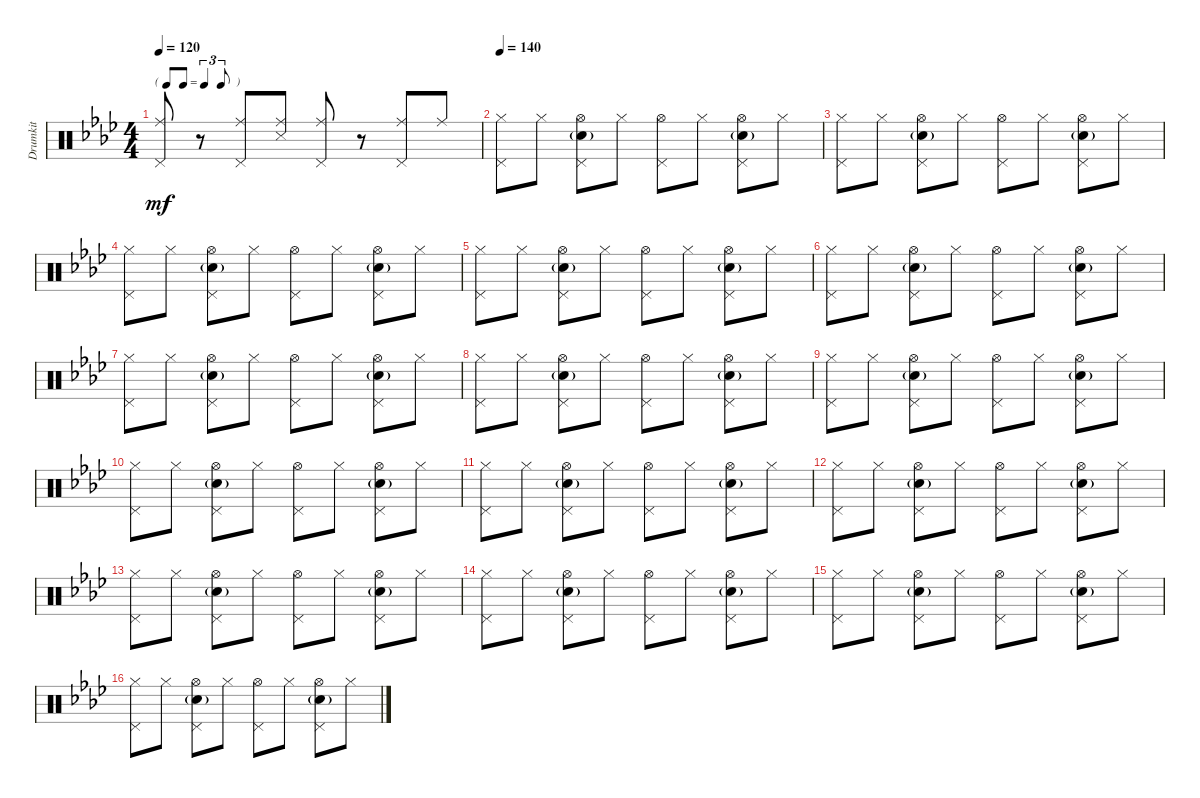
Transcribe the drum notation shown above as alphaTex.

\track ("Drumkit" "Drumkit") {instrument percussion}
\staff {score}
\articulation defaults
\ts (4 4)
\tf triplet8th
\tempo 120
\clef neutral
\ks ab
("Pedal Hi-Hat (hit)" "Ride (middle)").8{dy mf} r.8 ("Pedal Hi-Hat (hit)" "Ride (middle)").8 ("Ride (middle)" "Snare (side stick) 3").8 ("Pedal Hi-Hat (hit)" "Ride (middle)").8 r.8 ("Pedal Hi-Hat (hit)" "Ride (middle)").8 "Ride (middle)".8 |
\tempo 140
("Pedal Hi-Hat (hit)" "Hi-Hat (closed)").8 "Hi-Hat (closed)".8 ("Pedal Hi-Hat (hit)" "Snare (hit) 2"{g} "Hi-Hat (open)").8 "Hi-Hat (closed)".8 ("Pedal Hi-Hat (hit)" "Hi-Hat (open)").8 "Hi-Hat (closed)".8 ("Pedal Hi-Hat (hit)" "Snare (hit) 2"{g} "Hi-Hat (open)").8 "Hi-Hat (closed)".8 |
("Pedal Hi-Hat (hit)" "Hi-Hat (closed)").8 "Hi-Hat (closed)".8 ("Pedal Hi-Hat (hit)" "Snare (hit) 2"{g} "Hi-Hat (open)").8 "Hi-Hat (closed)".8 ("Pedal Hi-Hat (hit)" "Hi-Hat (open)").8 "Hi-Hat (closed)".8 ("Pedal Hi-Hat (hit)" "Snare (hit) 2"{g} "Hi-Hat (open)").8 "Hi-Hat (closed)".8 |
("Pedal Hi-Hat (hit)" "Hi-Hat (closed)").8 "Hi-Hat (closed)".8 ("Pedal Hi-Hat (hit)" "Snare (hit) 2"{g} "Hi-Hat (open)").8 "Hi-Hat (closed)".8 ("Pedal Hi-Hat (hit)" "Hi-Hat (open)").8 "Hi-Hat (closed)".8 ("Pedal Hi-Hat (hit)" "Snare (hit) 2"{g} "Hi-Hat (open)").8 "Hi-Hat (closed)".8 |
("Pedal Hi-Hat (hit)" "Hi-Hat (closed)").8 "Hi-Hat (closed)".8 ("Pedal Hi-Hat (hit)" "Snare (hit) 2"{g} "Hi-Hat (open)").8 "Hi-Hat (closed)".8 ("Pedal Hi-Hat (hit)" "Hi-Hat (open)").8 "Hi-Hat (closed)".8 ("Pedal Hi-Hat (hit)" "Snare (hit) 2"{g} "Hi-Hat (open)").8 "Hi-Hat (closed)".8 |
("Pedal Hi-Hat (hit)" "Hi-Hat (closed)").8 "Hi-Hat (closed)".8 ("Pedal Hi-Hat (hit)" "Snare (hit) 2"{g} "Hi-Hat (open)").8 "Hi-Hat (closed)".8 ("Pedal Hi-Hat (hit)" "Hi-Hat (open)").8 "Hi-Hat (closed)".8 ("Pedal Hi-Hat (hit)" "Snare (hit) 2"{g} "Hi-Hat (open)").8 "Hi-Hat (closed)".8 |
("Pedal Hi-Hat (hit)" "Hi-Hat (closed)").8 "Hi-Hat (closed)".8 ("Pedal Hi-Hat (hit)" "Snare (hit) 2"{g} "Hi-Hat (open)").8 "Hi-Hat (closed)".8 ("Pedal Hi-Hat (hit)" "Hi-Hat (open)").8 "Hi-Hat (closed)".8 ("Pedal Hi-Hat (hit)" "Snare (hit) 2"{g} "Hi-Hat (open)").8 "Hi-Hat (closed)".8 |
("Pedal Hi-Hat (hit)" "Hi-Hat (closed)").8 "Hi-Hat (closed)".8 ("Pedal Hi-Hat (hit)" "Snare (hit) 2"{g} "Hi-Hat (open)").8 "Hi-Hat (closed)".8 ("Pedal Hi-Hat (hit)" "Hi-Hat (open)").8 "Hi-Hat (closed)".8 ("Pedal Hi-Hat (hit)" "Snare (hit) 2"{g} "Hi-Hat (open)").8 "Hi-Hat (closed)".8 |
("Pedal Hi-Hat (hit)" "Hi-Hat (closed)").8 "Hi-Hat (closed)".8 ("Pedal Hi-Hat (hit)" "Snare (hit) 2"{g} "Hi-Hat (open)").8 "Hi-Hat (closed)".8 ("Pedal Hi-Hat (hit)" "Hi-Hat (open)").8 "Hi-Hat (closed)".8 ("Pedal Hi-Hat (hit)" "Snare (hit) 2"{g} "Hi-Hat (open)").8 "Hi-Hat (closed)".8 |
("Pedal Hi-Hat (hit)" "Hi-Hat (closed)").8 "Hi-Hat (closed)".8 ("Pedal Hi-Hat (hit)" "Snare (hit) 2"{g} "Hi-Hat (open)").8 "Hi-Hat (closed)".8 ("Pedal Hi-Hat (hit)" "Hi-Hat (open)").8 "Hi-Hat (closed)".8 ("Pedal Hi-Hat (hit)" "Snare (hit) 2"{g} "Hi-Hat (open)").8 "Hi-Hat (closed)".8 |
("Pedal Hi-Hat (hit)" "Hi-Hat (closed)").8 "Hi-Hat (closed)".8 ("Pedal Hi-Hat (hit)" "Snare (hit) 2"{g} "Hi-Hat (open)").8 "Hi-Hat (closed)".8 ("Pedal Hi-Hat (hit)" "Hi-Hat (open)").8 "Hi-Hat (closed)".8 ("Pedal Hi-Hat (hit)" "Snare (hit) 2"{g} "Hi-Hat (open)").8 "Hi-Hat (closed)".8 |
("Pedal Hi-Hat (hit)" "Hi-Hat (closed)").8 "Hi-Hat (closed)".8 ("Pedal Hi-Hat (hit)" "Snare (hit) 2"{g} "Hi-Hat (open)").8 "Hi-Hat (closed)".8 ("Pedal Hi-Hat (hit)" "Hi-Hat (open)").8 "Hi-Hat (closed)".8 ("Pedal Hi-Hat (hit)" "Snare (hit) 2"{g} "Hi-Hat (open)").8 "Hi-Hat (closed)".8 |
("Pedal Hi-Hat (hit)" "Hi-Hat (closed)").8 "Hi-Hat (closed)".8 ("Pedal Hi-Hat (hit)" "Snare (hit) 2"{g} "Hi-Hat (open)").8 "Hi-Hat (closed)".8 ("Pedal Hi-Hat (hit)" "Hi-Hat (open)").8 "Hi-Hat (closed)".8 ("Pedal Hi-Hat (hit)" "Snare (hit) 2"{g} "Hi-Hat (open)").8 "Hi-Hat (closed)".8 |
("Pedal Hi-Hat (hit)" "Hi-Hat (closed)").8 "Hi-Hat (closed)".8 ("Pedal Hi-Hat (hit)" "Snare (hit) 2"{g} "Hi-Hat (open)").8 "Hi-Hat (closed)".8 ("Pedal Hi-Hat (hit)" "Hi-Hat (open)").8 "Hi-Hat (closed)".8 ("Pedal Hi-Hat (hit)" "Snare (hit) 2"{g} "Hi-Hat (open)").8 "Hi-Hat (closed)".8 |
("Pedal Hi-Hat (hit)" "Hi-Hat (closed)").8 "Hi-Hat (closed)".8 ("Pedal Hi-Hat (hit)" "Snare (hit) 2"{g} "Hi-Hat (open)").8 "Hi-Hat (closed)".8 ("Pedal Hi-Hat (hit)" "Hi-Hat (open)").8 "Hi-Hat (closed)".8 ("Pedal Hi-Hat (hit)" "Snare (hit) 2"{g} "Hi-Hat (open)").8 "Hi-Hat (closed)".8 |
("Pedal Hi-Hat (hit)" "Hi-Hat (closed)").8 "Hi-Hat (closed)".8 ("Pedal Hi-Hat (hit)" "Snare (hit) 2"{g} "Hi-Hat (open)").8 "Hi-Hat (closed)".8 ("Pedal Hi-Hat (hit)" "Hi-Hat (open)").8 "Hi-Hat (closed)".8 ("Pedal Hi-Hat (hit)" "Snare (hit) 2"{g} "Hi-Hat (open)").8 "Hi-Hat (closed)".8
